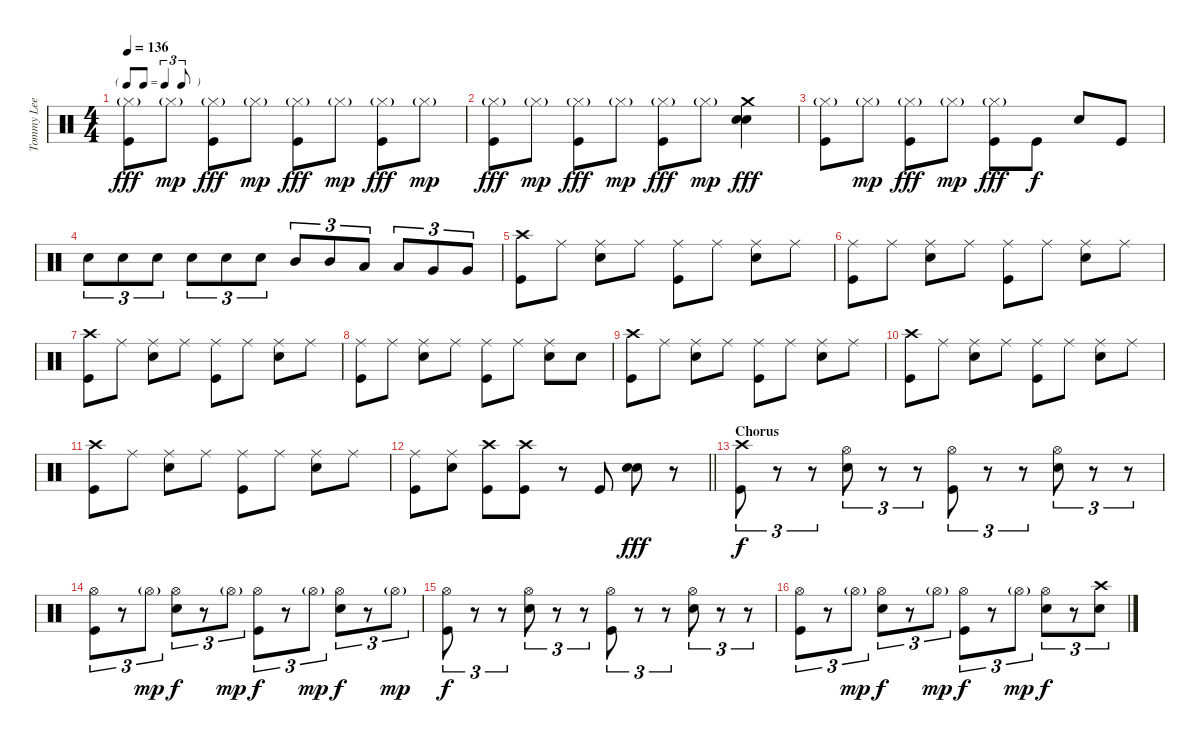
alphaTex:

\track ("Tommy Lee" "Tommy Lee") {instrument percussion}
\staff {score}
\articulation defaults
\ts (4 4)
\tf triplet8th
\tempo 136
\clef neutral
\ks c
("Hi-Hat (closed)"{g} "Kick (hit)").8{dy fff} "Hi-Hat (closed)"{g}.8{dy mp} ("Hi-Hat (closed)"{g} "Kick (hit)").8{dy fff} "Hi-Hat (closed)"{g}.8{dy mp} ("Hi-Hat (closed)"{g} "Kick (hit)").8{dy fff} "Hi-Hat (closed)"{g}.8{dy mp} ("Hi-Hat (closed)"{g} "Kick (hit)").8{dy fff} "Hi-Hat (closed)"{g}.8{dy mp} |
("Hi-Hat (closed)"{g} "Kick (hit)").8{dy fff} "Hi-Hat (closed)"{g}.8{dy mp} ("Hi-Hat (closed)"{g} "Kick (hit)").8{dy fff} "Hi-Hat (closed)"{g}.8{dy mp} ("Hi-Hat (closed)"{g} "Kick (hit)").8{dy fff} "Hi-Hat (closed)"{g}.8{dy mp} ("Crash medium (hit)" "Snare (hit) 2" "Snare (hit) 2").4{dy fff} |
("Hi-Hat (closed)"{g} "Kick (hit)").8 "Hi-Hat (closed)"{g}.8{dy mp} ("Hi-Hat (closed)"{g} "Kick (hit)").8{dy fff} "Hi-Hat (closed)"{g}.8{dy mp} ("Hi-Hat (closed)"{g} "Kick (hit)").8{dy fff} "Kick (hit)".8{dy f} "Snare (hit) 2".8 "Kick (hit)".8 |
"Snare (hit) 2".8{tu (3 2)} "Snare (hit) 2".8{tu (3 2)} "Snare (hit) 2".8{tu (3 2)} "Snare (hit) 2".8{tu (3 2)} "Snare (hit) 2".8{tu (3 2)} "Snare (hit) 2".8{tu (3 2)} "Mid Tom (hit)".8{tu (3 2)} "Mid Tom (hit)".8{tu (3 2)} "Low Tom (hit)".8{tu (3 2)} "Low Tom (hit)".8{tu (3 2)} "Very Low Tom (hit)".8{tu (3 2)} "Very Low Tom (hit)".8{tu (3 2)} |
("Crash high (hit)" "Kick (hit)").8 "Ride (middle)".8 ("Ride (middle)" "Snare (hit) 2").8 "Ride (middle)".8 ("Ride (middle)" "Kick (hit)").8 "Ride (middle)".8 ("Ride (middle)" "Snare (hit) 2").8 "Ride (middle)".8 |
("Ride (middle)" "Kick (hit)").8 "Ride (middle)".8 ("Ride (middle)" "Snare (hit) 2").8 "Ride (middle)".8 ("Ride (middle)" "Kick (hit)").8 "Ride (middle)".8 ("Ride (middle)" "Snare (hit) 2").8 "Ride (middle)".8 |
("Crash high (hit)" "Kick (hit)").8 "Ride (middle)".8 ("Ride (middle)" "Snare (hit) 2").8 "Ride (middle)".8 ("Ride (middle)" "Kick (hit)").8 "Ride (middle)".8 ("Ride (middle)" "Snare (hit) 2").8 "Ride (middle)".8 |
("Ride (middle)" "Kick (hit)").8 "Ride (middle)".8 ("Ride (middle)" "Snare (hit) 2").8 "Ride (middle)".8 ("Ride (middle)" "Kick (hit)").8 "Ride (middle)".8 ("Ride (middle)" "Snare (hit) 2").8 "Snare (hit) 2".8 |
("Crash high (hit)" "Kick (hit)").8 "Ride (middle)".8 ("Ride (middle)" "Snare (hit) 2").8 "Ride (middle)".8 ("Ride (middle)" "Kick (hit)").8 "Ride (middle)".8 ("Ride (middle)" "Snare (hit) 2").8 "Ride (middle)".8 |
("Crash high (hit)" "Kick (hit)").8 "Ride (middle)".8 ("Ride (middle)" "Snare (hit) 2").8 "Ride (middle)".8 ("Ride (middle)" "Kick (hit)").8 "Ride (middle)".8 ("Ride (middle)" "Snare (hit) 2").8 "Ride (middle)".8 |
("Crash high (hit)" "Kick (hit)").8 "Ride (middle)".8 ("Ride (middle)" "Snare (hit) 2").8 "Ride (middle)".8 ("Ride (middle)" "Kick (hit)").8 "Ride (middle)".8 ("Ride (middle)" "Snare (hit) 2").8 "Ride (middle)".8 |
\barLineRight lightlight
("Ride (middle)" "Kick (hit)").8 ("Ride (middle)" "Snare (hit) 2").8 ("Crash high (hit)" "Kick (hit)").8 ("Crash high (hit)" "Kick (hit)").8 r.8 "Kick (hit)".8 ("Snare (hit) 2" "Snare (hit) 2").8{dy fff} r.8 |
\section ("" "Chorus")
("Crash high (hit)" "Kick (hit)").8{tu (3 2) dy f} r.8{tu (3 2)} r.8{tu (3 2)} ("Hi-Hat (open)" "Snare (hit) 2").8{tu (3 2)} r.8{tu (3 2)} r.8{tu (3 2)} ("Hi-Hat (open)" "Kick (hit)").8{tu (3 2)} r.8{tu (3 2)} r.8{tu (3 2)} ("Hi-Hat (open)" "Snare (hit) 2").8{tu (3 2)} r.8{tu (3 2)} r.8{tu (3 2)} |
("Hi-Hat (open)" "Kick (hit)").8{tu (3 2)} r.8{tu (3 2)} "Hi-Hat (open)"{g}.8{tu (3 2) dy mp} ("Hi-Hat (open)" "Snare (hit) 2").8{tu (3 2) dy f} r.8{tu (3 2)} "Hi-Hat (open)"{g}.8{tu (3 2) dy mp} ("Hi-Hat (open)" "Kick (hit)").8{tu (3 2) dy f} r.8{tu (3 2)} "Hi-Hat (open)"{g}.8{tu (3 2) dy mp} ("Hi-Hat (open)" "Snare (hit) 2").8{tu (3 2) dy f} r.8{tu (3 2)} "Hi-Hat (open)"{g}.8{tu (3 2) dy mp} |
("Hi-Hat (open)" "Kick (hit)").8{tu (3 2) dy f} r.8{tu (3 2)} r.8{tu (3 2)} ("Hi-Hat (open)" "Snare (hit) 2").8{tu (3 2)} r.8{tu (3 2)} r.8{tu (3 2)} ("Hi-Hat (open)" "Kick (hit)").8{tu (3 2)} r.8{tu (3 2)} r.8{tu (3 2)} ("Hi-Hat (open)" "Snare (hit) 2").8{tu (3 2)} r.8{tu (3 2)} r.8{tu (3 2)} |
("Hi-Hat (open)" "Kick (hit)").8{tu (3 2)} r.8{tu (3 2)} "Hi-Hat (open)"{g}.8{tu (3 2) dy mp} ("Hi-Hat (open)" "Snare (hit) 2").8{tu (3 2) dy f} r.8{tu (3 2)} "Hi-Hat (open)"{g}.8{tu (3 2) dy mp} ("Hi-Hat (open)" "Kick (hit)").8{tu (3 2) dy f} r.8{tu (3 2)} "Hi-Hat (open)"{g}.8{tu (3 2) dy mp} ("Hi-Hat (open)" "Snare (hit) 2").8{tu (3 2) dy f} r.8{tu (3 2)} ("Crash high (hit)" "Snare (hit) 2").8{tu (3 2)}
